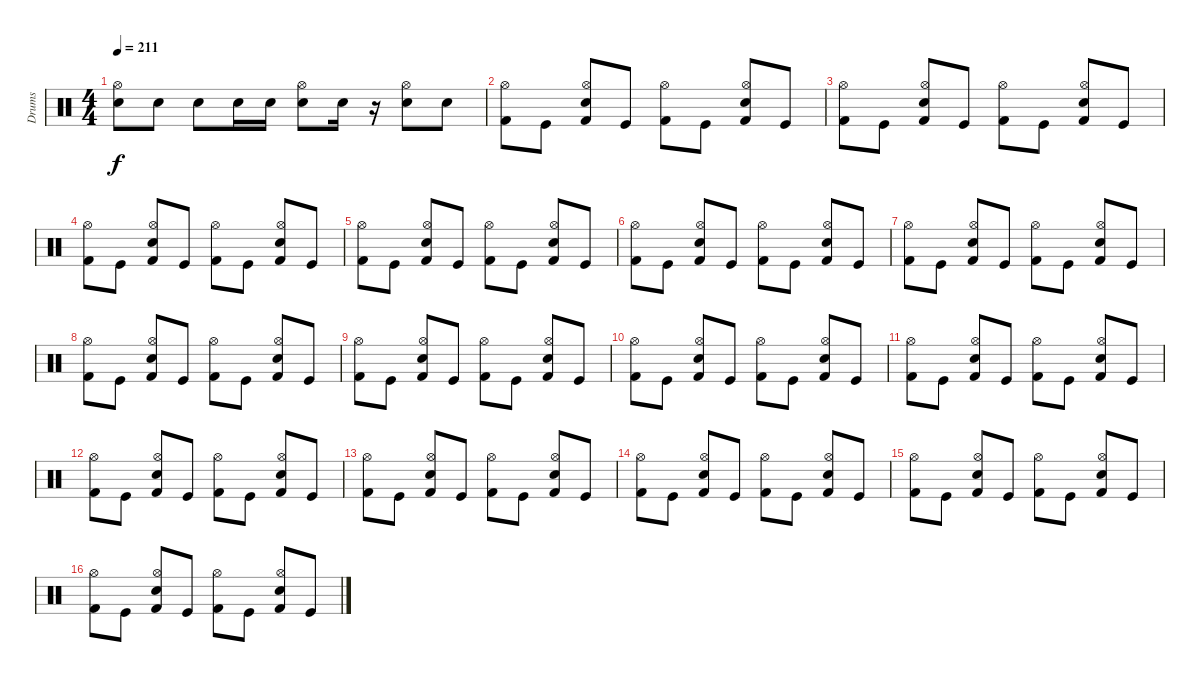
\track ("Drums" "Drums") {instrument percussion}
\staff {score}
\articulation defaults
\ts (4 4)
\tempo 211
\clef neutral
\ks c
("Snare (hit) 2" "Hi-Hat (open)").8{dy f} "Snare (hit) 2".8 "Snare (hit) 2".8 "Snare (hit) 2".16 "Snare (hit) 2".16 ("Snare (hit) 2" "Hi-Hat (open)").8 "Snare (hit) 2".16 r.16 ("Snare (hit) 2" "Hi-Hat (open)").8 "Snare (hit) 2".8 |
("Kick (hit) 2" "Hi-Hat (open)").8 "Kick (hit)".8 ("Kick (hit) 2" "Snare (hit) 2" "Hi-Hat (open)").8 "Kick (hit)".8 ("Kick (hit) 2" "Hi-Hat (open)").8 "Kick (hit)".8 ("Kick (hit) 2" "Snare (hit) 2" "Hi-Hat (open)").8 "Kick (hit)".8 |
("Kick (hit) 2" "Hi-Hat (open)").8 "Kick (hit)".8 ("Kick (hit) 2" "Snare (hit) 2" "Hi-Hat (open)").8 "Kick (hit)".8 ("Kick (hit) 2" "Hi-Hat (open)").8 "Kick (hit)".8 ("Kick (hit) 2" "Snare (hit) 2" "Hi-Hat (open)").8 "Kick (hit)".8 |
("Kick (hit) 2" "Hi-Hat (open)").8 "Kick (hit)".8 ("Kick (hit) 2" "Snare (hit) 2" "Hi-Hat (open)").8 "Kick (hit)".8 ("Kick (hit) 2" "Hi-Hat (open)").8 "Kick (hit)".8 ("Kick (hit) 2" "Snare (hit) 2" "Hi-Hat (open)").8 "Kick (hit)".8 |
("Kick (hit) 2" "Hi-Hat (open)").8 "Kick (hit)".8 ("Kick (hit) 2" "Snare (hit) 2" "Hi-Hat (open)").8 "Kick (hit)".8 ("Kick (hit) 2" "Hi-Hat (open)").8 "Kick (hit)".8 ("Kick (hit) 2" "Snare (hit) 2" "Hi-Hat (open)").8 "Kick (hit)".8 |
("Kick (hit) 2" "Hi-Hat (open)").8 "Kick (hit)".8 ("Kick (hit) 2" "Snare (hit) 2" "Hi-Hat (open)").8 "Kick (hit)".8 ("Kick (hit) 2" "Hi-Hat (open)").8 "Kick (hit)".8 ("Kick (hit) 2" "Snare (hit) 2" "Hi-Hat (open)").8 "Kick (hit)".8 |
("Kick (hit) 2" "Hi-Hat (open)").8 "Kick (hit)".8 ("Kick (hit) 2" "Snare (hit) 2" "Hi-Hat (open)").8 "Kick (hit)".8 ("Kick (hit) 2" "Hi-Hat (open)").8 "Kick (hit)".8 ("Kick (hit) 2" "Snare (hit) 2" "Hi-Hat (open)").8 "Kick (hit)".8 |
("Kick (hit) 2" "Hi-Hat (open)").8 "Kick (hit)".8 ("Kick (hit) 2" "Snare (hit) 2" "Hi-Hat (open)").8 "Kick (hit)".8 ("Kick (hit) 2" "Hi-Hat (open)").8 "Kick (hit)".8 ("Kick (hit) 2" "Snare (hit) 2" "Hi-Hat (open)").8 "Kick (hit)".8 |
("Kick (hit) 2" "Hi-Hat (open)").8 "Kick (hit)".8 ("Kick (hit) 2" "Snare (hit) 2" "Hi-Hat (open)").8 "Kick (hit)".8 ("Kick (hit) 2" "Hi-Hat (open)").8 "Kick (hit)".8 ("Kick (hit) 2" "Snare (hit) 2" "Hi-Hat (open)").8 "Kick (hit)".8 |
("Kick (hit) 2" "Hi-Hat (open)").8 "Kick (hit)".8 ("Kick (hit) 2" "Snare (hit) 2" "Hi-Hat (open)").8 "Kick (hit)".8 ("Kick (hit) 2" "Hi-Hat (open)").8 "Kick (hit)".8 ("Kick (hit) 2" "Snare (hit) 2" "Hi-Hat (open)").8 "Kick (hit)".8 |
("Kick (hit) 2" "Hi-Hat (open)").8 "Kick (hit)".8 ("Kick (hit) 2" "Snare (hit) 2" "Hi-Hat (open)").8 "Kick (hit)".8 ("Kick (hit) 2" "Hi-Hat (open)").8 "Kick (hit)".8 ("Kick (hit) 2" "Snare (hit) 2" "Hi-Hat (open)").8 "Kick (hit)".8 |
("Kick (hit) 2" "Hi-Hat (open)").8 "Kick (hit)".8 ("Kick (hit) 2" "Snare (hit) 2" "Hi-Hat (open)").8 "Kick (hit)".8 ("Kick (hit) 2" "Hi-Hat (open)").8 "Kick (hit)".8 ("Kick (hit) 2" "Snare (hit) 2" "Hi-Hat (open)").8 "Kick (hit)".8 |
("Kick (hit) 2" "Hi-Hat (open)").8 "Kick (hit)".8 ("Kick (hit) 2" "Snare (hit) 2" "Hi-Hat (open)").8 "Kick (hit)".8 ("Kick (hit) 2" "Hi-Hat (open)").8 "Kick (hit)".8 ("Kick (hit) 2" "Snare (hit) 2" "Hi-Hat (open)").8 "Kick (hit)".8 |
("Kick (hit) 2" "Hi-Hat (open)").8 "Kick (hit)".8 ("Kick (hit) 2" "Snare (hit) 2" "Hi-Hat (open)").8 "Kick (hit)".8 ("Kick (hit) 2" "Hi-Hat (open)").8 "Kick (hit)".8 ("Kick (hit) 2" "Snare (hit) 2" "Hi-Hat (open)").8 "Kick (hit)".8 |
("Kick (hit) 2" "Hi-Hat (open)").8 "Kick (hit)".8 ("Kick (hit) 2" "Snare (hit) 2" "Hi-Hat (open)").8 "Kick (hit)".8 ("Kick (hit) 2" "Hi-Hat (open)").8 "Kick (hit)".8 ("Kick (hit) 2" "Snare (hit) 2" "Hi-Hat (open)").8 "Kick (hit)".8 |
("Kick (hit) 2" "Hi-Hat (open)").8 "Kick (hit)".8 ("Kick (hit) 2" "Snare (hit) 2" "Hi-Hat (open)").8 "Kick (hit)".8 ("Kick (hit) 2" "Hi-Hat (open)").8 "Kick (hit)".8 ("Kick (hit) 2" "Snare (hit) 2" "Hi-Hat (open)").8 "Kick (hit)".8
